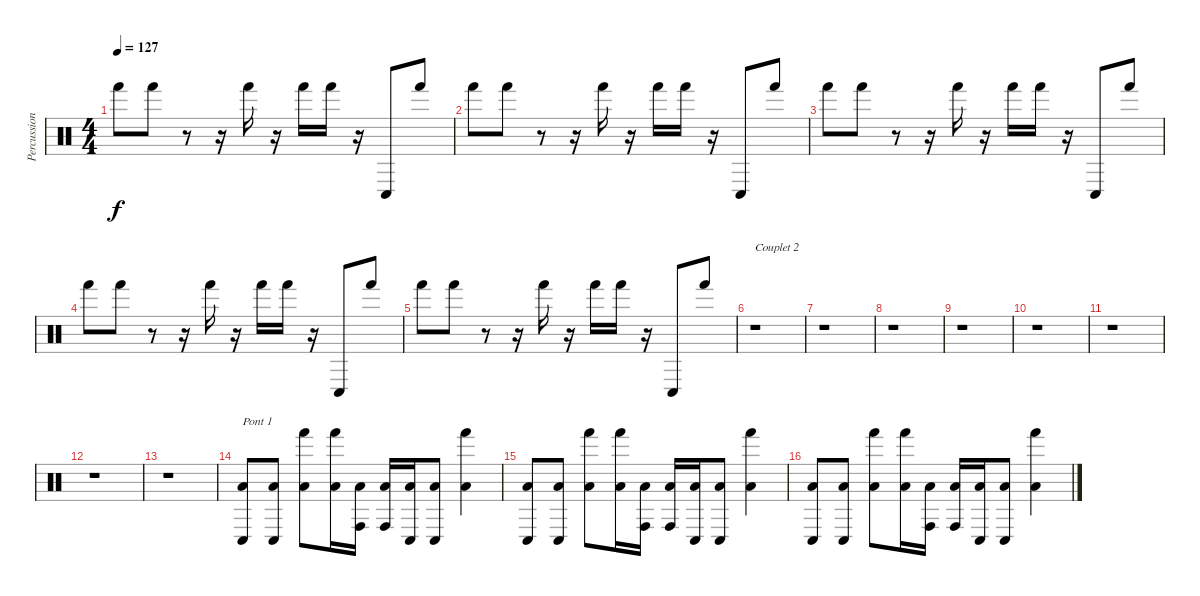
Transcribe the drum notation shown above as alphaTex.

\track ("Percussions" "Percussion") {instrument percussion}
\staff {score}
\articulation defaults
\ts (4 4)
\tempo 127
\clef neutral
\ks c "Hand (hit)".8{dy f} "Hand (hit)".8
r.8 r.16 "Hand (hit)".16 r.16 "Hand (hit)".16 "Hand (hit)".16 r.16 "Conga low (hit)".8 "Hand (hit)".8 |
"Hand (hit)".8 "Hand (hit)".8 r.8 r.16 "Hand (hit)".16 r.16 "Hand (hit)".16 "Hand (hit)".16 r.16 "Conga low (hit)".8 "Hand (hit)".8 |
"Hand (hit)".8 "Hand (hit)".8 r.8 r.16 "Hand (hit)".16 r.16 "Hand (hit)".16 "Hand (hit)".16 r.16 "Conga low (hit)".8 "Hand (hit)".8 |
"Hand (hit)".8 "Hand (hit)".8 r.8 r.16 "Hand (hit)".16 r.16 "Hand (hit)".16 "Hand (hit)".16 r.16 "Conga low (hit)".8 "Hand (hit)".8 |
"Hand (hit)".8 "Hand (hit)".8 r.8 r.16 "Hand (hit)".16 r.16 "Hand (hit)".16 "Hand (hit)".16 r.16 "Conga low (hit)".8 "Hand (hit)".8 |
r.1{txt "Couplet 2"} |
r.1 |
r.1 |
r.1 |
r.1 |
r.1 |
r.1 |
r.1 |
("Conga low (hit)" "Low Floor Tom (hit)").8{txt "Pont 1"} ("Conga low (hit)" "Low Floor Tom (hit)").8 ("Hand (hit)" "Low Floor Tom (hit)").8 ("Hand (hit)" "Low Floor Tom (hit)").16 ("Conga high (hit)" "Low Floor Tom (hit)").16 ("Conga high (hit)" "Low Floor Tom (hit)").16 ("Conga low (hit)" "Low Floor Tom (hit)").16 ("Conga low (hit)" "Low Floor Tom (hit)").8 ("Hand (hit)" "Low Floor Tom (hit)").4 |
("Conga low (hit)" "Low Floor Tom (hit)").8 ("Conga low (hit)" "Low Floor Tom (hit)").8 ("Hand (hit)" "Low Floor Tom (hit)").8 ("Hand (hit)" "Low Floor Tom (hit)").16 ("Conga high (hit)" "Low Floor Tom (hit)").16 ("Conga high (hit)" "Low Floor Tom (hit)").16 ("Conga low (hit)" "Low Floor Tom (hit)").16 ("Conga low (hit)" "Low Floor Tom (hit)").8 ("Hand (hit)" "Low Floor Tom (hit)").4 |
("Conga low (hit)" "Low Floor Tom (hit)").8 ("Conga low (hit)" "Low Floor Tom (hit)").8 ("Hand (hit)" "Low Floor Tom (hit)").8 ("Hand (hit)" "Low Floor Tom (hit)").16 ("Conga high (hit)" "Low Floor Tom (hit)").16 ("Conga high (hit)" "Low Floor Tom (hit)").16 ("Conga low (hit)" "Low Floor Tom (hit)").16 ("Conga low (hit)" "Low Floor Tom (hit)").8 ("Hand (hit)" "Low Floor Tom (hit)").4
